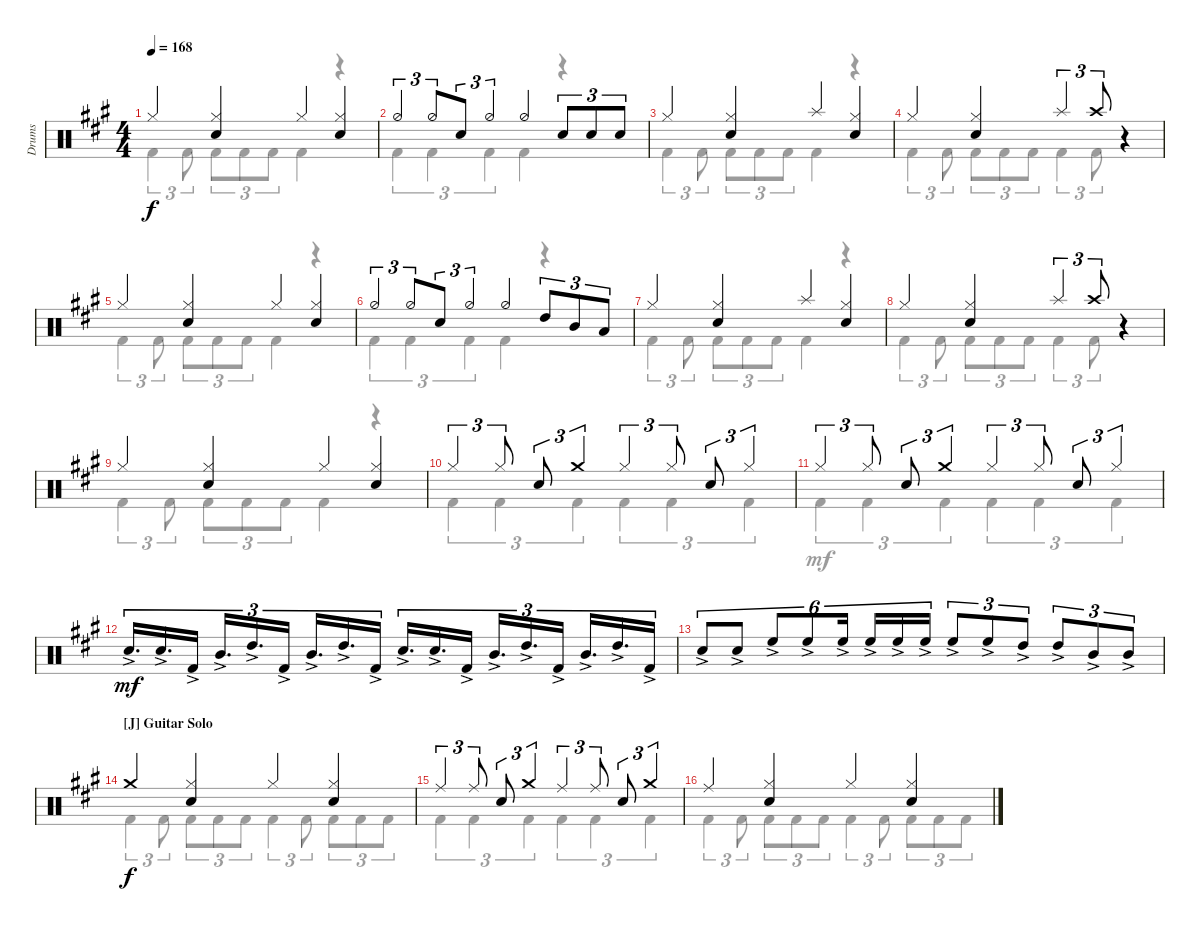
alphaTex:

\defaultSystemsLayout 4
\bracketExtendMode groupsimilarinstruments
\otherSystemsTrackNameOrientation horizontal
\track ("Drums" "Drums") {instrument percussion}
\staff {score}
\articulation defaults
\voice
\ts (4 4)
\tempo 168
\clef neutral
\ks a "Hi-Hat (closed)"{acc forcenatural}.4{dy f beam Up}
("Hi-Hat (closed)"{acc forcenatural} "Snare (hit) 2"{acc forcenatural}).4{beam Up} "Hi-Hat (closed)"{acc forcenatural}.4{beam Up} ("Hi-Hat (closed)"{acc forcenatural} "Snare (hit) 2"{acc forcenatural}).4{beam Up} |
"Hi-Hat (half)"{acc forcenatural}.4{tu (3 2) beam Up} "Hi-Hat (half)"{acc forcenatural}.8{tu (3 2) beam Up beam merge} "Snare (hit) 2"{acc forcenatural}.8{tu (3 2) beam Up} "Hi-Hat (half)"{acc forcenatural}.4{tu (3 2) beam Up} "Hi-Hat (half)"{acc forcenatural}.4{beam Up} "Snare (hit) 2"{acc forcenatural}.8{tu (3 2) beam Up} "Snare (hit) 2"{acc forcenatural}.8{tu (3 2) beam Up} "Snare (hit) 2"{acc forcenatural}.8{tu (3 2) beam Up} |
"Hi-Hat (closed)"{acc forcenatural}.4{beam Up} ("Hi-Hat (closed)"{acc forcenatural} "Snare (hit) 2"{acc forcenatural}).4{beam Up} "Splash (hit)"{acc forcenatural}.4{beam Up} ("Hi-Hat (closed)"{acc forcenatural} "Snare (hit) 2"{acc forcenatural}).4{beam Up} |
"Hi-Hat (closed)"{acc forcenatural}.4{beam Up} ("Hi-Hat (closed)"{acc forcenatural} "Snare (hit) 2"{acc forcenatural}).4{beam Up} "Splash (hit)"{acc forcenatural}.4{tu (3 2) beam Up} "Crash high (hit)"{acc forcenatural}.8{tu (3 2) beam Up} r.4{beam Up} |
"Hi-Hat (closed)"{acc forcenatural}.4{beam Up} ("Hi-Hat (closed)"{acc forcenatural} "Snare (hit) 2"{acc forcenatural}).4{beam Up} "Hi-Hat (closed)"{acc forcenatural}.4{beam Up} ("Hi-Hat (closed)"{acc forcenatural} "Snare (hit) 2"{acc forcenatural}).4{beam Up} |
"Hi-Hat (half)"{acc forcenatural}.4{tu (3 2) beam Up} "Hi-Hat (half)"{acc forcenatural}.8{tu (3 2) beam Up beam merge} "Snare (hit) 2"{acc forcenatural}.8{tu (3 2) beam Up} "Hi-Hat (half)"{acc forcenatural}.4{tu (3 2) beam Up} "Hi-Hat (half)"{acc forcenatural}.4{beam Up} "High Tom (hit)"{acc forcenatural}.8{tu (3 2) beam Up} "Mid Tom (hit)"{acc forcenatural}.8{tu (3 2) beam Up} "Low Tom (hit)"{acc forcenatural}.8{tu (3 2) beam Up} |
"Hi-Hat (closed)"{acc forcenatural}.4{beam Up} ("Hi-Hat (closed)"{acc forcenatural} "Snare (hit) 2"{acc forcenatural}).4{beam Up} "Splash (hit)"{acc forcenatural}.4{beam Up} ("Hi-Hat (closed)"{acc forcenatural} "Snare (hit) 2"{acc forcenatural}).4{beam Up} |
"Hi-Hat (closed)"{acc forcenatural}.4{beam Up} ("Hi-Hat (closed)"{acc forcenatural} "Snare (hit) 2"{acc forcenatural}).4{beam Up} "Splash (hit)"{acc forcenatural}.4{tu (3 2) beam Up} "Crash high (hit)"{acc forcenatural}.8{tu (3 2) beam Up} r.4{beam Up} |
"Hi-Hat (closed)"{acc forcenatural}.4{beam Up} ("Hi-Hat (closed)"{acc forcenatural} "Snare (hit) 2"{acc forcenatural}).4{beam Up} "Hi-Hat (closed)"{acc forcenatural}.4{beam Up} ("Hi-Hat (closed)"{acc forcenatural} "Snare (hit) 2"{acc forcenatural}).4{beam Up} |
"Hi-Hat (closed)"{acc forcenatural}.4{tu (3 2) beam Up} "Hi-Hat (closed)"{acc forcenatural}.8{tu (3 2) beam Up} "Snare (hit) 2"{acc forcenatural}.8{tu (3 2) beam Up} "Crash medium (hit)"{acc forcenatural}.4{tu (3 2) beam Up} "Hi-Hat (closed)"{acc forcenatural}.4{tu (3 2) beam Up} "Hi-Hat (closed)"{acc forcenatural}.8{tu (3 2) beam Up} "Snare (hit) 2"{acc forcenatural}.8{tu (3 2) beam Up} "Hi-Hat (closed)"{acc forcenatural}.4{tu (3 2) beam Up} |
"Hi-Hat (closed)"{acc forcenatural}.4{tu (3 2) beam Up} "Hi-Hat (closed)"{acc forcenatural}.8{tu (3 2) beam Up} "Snare (hit) 2"{acc forcenatural}.8{tu (3 2) beam Up} "Crash medium (hit)"{acc forcenatural}.4{tu (3 2) beam Up} "Hi-Hat (closed)"{acc forcenatural}.4{tu (3 2) beam Up} "Hi-Hat (closed)"{acc forcenatural}.8{tu (3 2) beam Up} "Snare (hit) 2"{acc forcenatural}.8{tu (3 2) beam Up} "Hi-Hat (closed)"{acc forcenatural}.4{tu (3 2) beam Up} |
"Snare (hit) 2"{ac acc forcenatural}.16{d tu (3 2) dy mf beam Up} "Snare (hit) 2"{ac acc forcenatural}.16{d tu (3 2) beam Up} "Kick (hit) 2"{ac acc forcenatural}.16{tu (3 2) beam Up beam split} "Mid Tom (hit)"{ac acc forcenatural}.16{d tu (3 2) beam Up} "High Tom (hit)"{ac acc forcenatural}.16{d tu (3 2) beam Up} "Kick (hit) 2"{ac acc forcenatural}.16{tu (3 2) beam Up beam split} "Mid Tom (hit)"{ac acc forcenatural}.16{d tu (3 2) beam Up} "High Tom (hit)"{ac acc forcenatural}.16{d tu (3 2) beam Up} "Kick (hit) 2"{ac acc forcenatural}.16{tu (3 2) beam Up beam split} "Snare (hit) 2"{ac acc forcenatural}.16{d tu (3 2) beam Up} "Snare (hit) 2"{ac acc forcenatural}.16{d tu (3 2) beam Up} "Kick (hit) 2"{ac acc forcenatural}.16{tu (3 2) beam Up beam split} "Mid Tom (hit)"{ac acc forcenatural}.16{d tu (3 2) beam Up} "High Tom (hit)"{ac acc forcenatural}.16{d tu (3 2) beam Up} "Kick (hit) 2"{ac acc forcenatural}.16{tu (3 2) beam Up beam split} "Mid Tom (hit)"{ac acc forcenatural}.16{d tu (3 2) beam Up} "High Tom (hit)"{ac acc forcenatural}.16{d tu (3 2) beam Up} "Kick (hit) 2"{ac acc forcenatural}.16{tu (3 2) beam Up} |
"Snare (hit) 2"{ac acc forcenatural}.8{tu (6 4) beam Up} "Snare (hit) 2"{ac acc forcenatural}.8{tu (6 4) beam Up beam split} "High Floor Tom (hit)"{ac acc forcenatural}.8{tu (6 4) beam Up} "High Floor Tom (hit)"{ac acc forcenatural}.8{tu (6 4) beam Up beam merge} "High Floor Tom (hit)"{ac acc forcenatural}.16{tu (6 4) beam Up beam split} "High Floor Tom (hit)"{ac acc forcenatural}.16{tu (6 4) beam Up} "High Floor Tom (hit)"{ac acc forcenatural}.16{tu (6 4) beam Up} "High Floor Tom (hit)"{ac acc forcenatural}.16{tu (6 4) beam Up} "High Floor Tom (hit)"{ac acc forcenatural}.8{tu (3 2) beam Up} "High Floor Tom (hit)"{ac acc forcenatural}.8{tu (3 2) beam Up} "High Tom (hit)"{ac acc forcenatural}.8{tu (3 2) beam Up} "High Tom (hit)"{ac acc forcenatural}.8{tu (3 2) beam Up} "Mid Tom (hit)"{ac acc forcenatural}.8{tu (3 2) beam Up} "Mid Tom (hit)"{ac acc forcenatural}.8{tu (3 2) beam Up} |
\section ("J" "Guitar Solo")
"Crash medium (hit)"{acc forcenatural}.4{dy f beam Up} ("Hi-Hat (closed)"{acc forcenatural} "Snare (hit) 2"{acc forcenatural}).4{beam Up} "Hi-Hat (closed)"{acc forcenatural}.4{beam Up} ("Hi-Hat (closed)"{acc forcenatural} "Snare (hit) 2"{acc forcenatural}).4{beam Up} |
"Ride (middle)"{acc forcenatural}.4{tu (3 2) beam Up} "Ride (middle)"{acc forcenatural}.8{tu (3 2) beam Up} "Snare (hit) 2"{acc forcenatural}.8{tu (3 2) beam Up} "Crash medium (hit)"{acc forcenatural}.4{tu (3 2) beam Up} "Ride (middle)"{acc forcenatural}.4{tu (3 2) beam Up} "Ride (middle)"{acc forcenatural}.8{tu (3 2) beam Up} "Snare (hit) 2"{acc forcenatural}.8{tu (3 2) beam Up} "Crash medium (hit)"{acc forcenatural}.4{tu (3 2) beam Up} |
"Ride (middle)"{acc forcenatural}.4{beam Up} ("Hi-Hat (closed)"{acc forcenatural} "Snare (hit) 2"{acc forcenatural}).4{beam Up} "Hi-Hat (closed)"{acc forcenatural}.4{beam Up} ("Hi-Hat (closed)"{acc forcenatural} "Snare (hit) 2"{acc forcenatural}).4{beam Up}
\voice
\clef neutral
\ottava regular
\simile none
\ks a "Kick (hit) 2"{acc forcenatural}.4{tu (3 2) dy f beam Down} "Kick (hit) 2"{acc forcenatural}.8{tu (3 2) beam Down} "Kick (hit) 2"{acc forcenatural}.8{tu (3 2) beam Down} "Kick (hit) 2"{acc forcenatural}.8{tu (3 2) beam Down} "Kick (hit) 2"{acc forcenatural}.8{tu (3 2) beam Down} "Kick (hit) 2"{acc forcenatural}.4{beam Down}
r.4{beam Down} |
"Kick (hit) 2"{acc forcenatural}.4{tu (3 2) beam Down} "Kick (hit) 2"{acc forcenatural}.4{tu (3 2) beam Down} "Kick (hit) 2"{acc forcenatural}.4{tu (3 2) beam Down} "Kick (hit) 2"{acc forcenatural}.4{beam Down} r.4{beam Down} |
"Kick (hit) 2"{acc forcenatural}.4{tu (3 2) beam Down} "Kick (hit) 2"{acc forcenatural}.8{tu (3 2) beam Down} "Kick (hit) 2"{acc forcenatural}.8{tu (3 2) beam Down} "Kick (hit) 2"{acc forcenatural}.8{tu (3 2) beam Down} "Kick (hit) 2"{acc forcenatural}.8{tu (3 2) beam Down} "Kick (hit) 2"{acc forcenatural}.4{beam Down} r.4{beam Down} |
"Kick (hit) 2"{acc forcenatural}.4{tu (3 2) beam Down} "Kick (hit) 2"{acc forcenatural}.8{tu (3 2) beam Down} "Kick (hit) 2"{acc forcenatural}.8{tu (3 2) beam Down} "Kick (hit) 2"{acc forcenatural}.8{tu (3 2) beam Down} "Kick (hit) 2"{acc forcenatural}.8{tu (3 2) beam Down} "Kick (hit) 2"{acc forcenatural}.4{tu (3 2) beam Down} "Kick (hit) 2"{acc forcenatural}.8{tu (3 2) beam Down} r.4{beam Down} |
"Kick (hit) 2"{acc forcenatural}.4{tu (3 2) beam Down} "Kick (hit) 2"{acc forcenatural}.8{tu (3 2) beam Down} "Kick (hit) 2"{acc forcenatural}.8{tu (3 2) beam Down} "Kick (hit) 2"{acc forcenatural}.8{tu (3 2) beam Down} "Kick (hit) 2"{acc forcenatural}.8{tu (3 2) beam Down} "Kick (hit) 2"{acc forcenatural}.4{beam Down} r.4{beam Down} |
"Kick (hit) 2"{acc forcenatural}.4{tu (3 2) beam Down} "Kick (hit) 2"{acc forcenatural}.4{tu (3 2) beam Down} "Kick (hit) 2"{acc forcenatural}.4{tu (3 2) beam Down} "Kick (hit) 2"{acc forcenatural}.4{beam Down} r.4{beam Down} |
"Kick (hit) 2"{acc forcenatural}.4{tu (3 2) beam Down} "Kick (hit) 2"{acc forcenatural}.8{tu (3 2) beam Down} "Kick (hit) 2"{acc forcenatural}.8{tu (3 2) beam Down} "Kick (hit) 2"{acc forcenatural}.8{tu (3 2) beam Down} "Kick (hit) 2"{acc forcenatural}.8{tu (3 2) beam Down} "Kick (hit) 2"{acc forcenatural}.4{beam Down} r.4{beam Down} |
"Kick (hit) 2"{acc forcenatural}.4{tu (3 2) beam Down} "Kick (hit) 2"{acc forcenatural}.8{tu (3 2) beam Down} "Kick (hit) 2"{acc forcenatural}.8{tu (3 2) beam Down} "Kick (hit) 2"{acc forcenatural}.8{tu (3 2) beam Down} "Kick (hit) 2"{acc forcenatural}.8{tu (3 2) beam Down} "Kick (hit) 2"{acc forcenatural}.4{tu (3 2) beam Down} "Kick (hit) 2"{acc forcenatural}.8{tu (3 2) beam Down} r.4{beam Down} |
"Kick (hit) 2"{acc forcenatural}.4{tu (3 2) beam Down} "Kick (hit) 2"{acc forcenatural}.8{tu (3 2) beam Down} "Kick (hit) 2"{acc forcenatural}.8{tu (3 2) beam Down} "Kick (hit) 2"{acc forcenatural}.8{tu (3 2) beam Down} "Kick (hit) 2"{acc forcenatural}.8{tu (3 2) beam Down} "Kick (hit) 2"{acc forcenatural}.4{beam Down} r.4{beam Down} |
"Kick (hit) 2"{acc forcenatural}.4{tu (3 2) beam Down} "Kick (hit) 2"{acc forcenatural}.4{tu (3 2) beam Down} "Kick (hit) 2"{acc forcenatural}.4{tu (3 2) beam Down} "Kick (hit) 2"{acc forcenatural}.4{tu (3 2) beam Down} "Kick (hit) 2"{acc forcenatural}.4{tu (3 2) beam Down} "Kick (hit) 2"{acc forcenatural}.4{tu (3 2) beam Down} |
"Kick (hit) 2"{acc forcenatural}.4{tu (3 2) dy mf beam Down} "Kick (hit) 2"{acc forcenatural}.4{tu (3 2) beam Down} "Kick (hit) 2"{acc forcenatural}.4{tu (3 2) beam Down} "Kick (hit) 2"{acc forcenatural}.4{tu (3 2) beam Down} "Kick (hit) 2"{acc forcenatural}.4{tu (3 2) beam Down} "Kick (hit) 2"{acc forcenatural}.4{tu (3 2) beam Down} |
|
|
"Kick (hit) 2"{acc forcenatural}.4{tu (3 2) dy f beam Down} "Kick (hit) 2"{acc forcenatural}.8{tu (3 2) beam Down} "Kick (hit) 2"{acc forcenatural}.8{tu (3 2) beam Down} "Kick (hit) 2"{acc forcenatural}.8{tu (3 2) beam Down} "Kick (hit) 2"{acc forcenatural}.8{tu (3 2) beam Down} "Kick (hit) 2"{acc forcenatural}.4{tu (3 2) beam Down} "Kick (hit) 2"{acc forcenatural}.8{tu (3 2) beam Down} "Kick (hit) 2"{acc forcenatural}.8{tu (3 2) beam Down} "Kick (hit) 2"{acc forcenatural}.8{tu (3 2) beam Down} "Kick (hit) 2"{acc forcenatural}.8{tu (3 2) beam Down} |
"Kick (hit) 2"{acc forcenatural}.4{tu (3 2) beam Down} "Kick (hit) 2"{acc forcenatural}.4{tu (3 2) beam Down} "Kick (hit) 2"{acc forcenatural}.4{tu (3 2) beam Down} "Kick (hit) 2"{acc forcenatural}.4{tu (3 2) beam Down} "Kick (hit) 2"{acc forcenatural}.4{tu (3 2) beam Down} "Kick (hit) 2"{acc forcenatural}.4{tu (3 2) beam Down} |
"Kick (hit) 2"{acc forcenatural}.4{tu (3 2) beam Down} "Kick (hit) 2"{acc forcenatural}.8{tu (3 2) beam Down} "Kick (hit) 2"{acc forcenatural}.8{tu (3 2) beam Down} "Kick (hit) 2"{acc forcenatural}.8{tu (3 2) beam Down} "Kick (hit) 2"{acc forcenatural}.8{tu (3 2) beam Down} "Kick (hit) 2"{acc forcenatural}.4{tu (3 2) beam Down} "Kick (hit) 2"{acc forcenatural}.8{tu (3 2) beam Down} "Kick (hit) 2"{acc forcenatural}.8{tu (3 2) beam Down} "Kick (hit) 2"{acc forcenatural}.8{tu (3 2) beam Down} "Kick (hit) 2"{acc forcenatural}.8{tu (3 2) beam Down}
